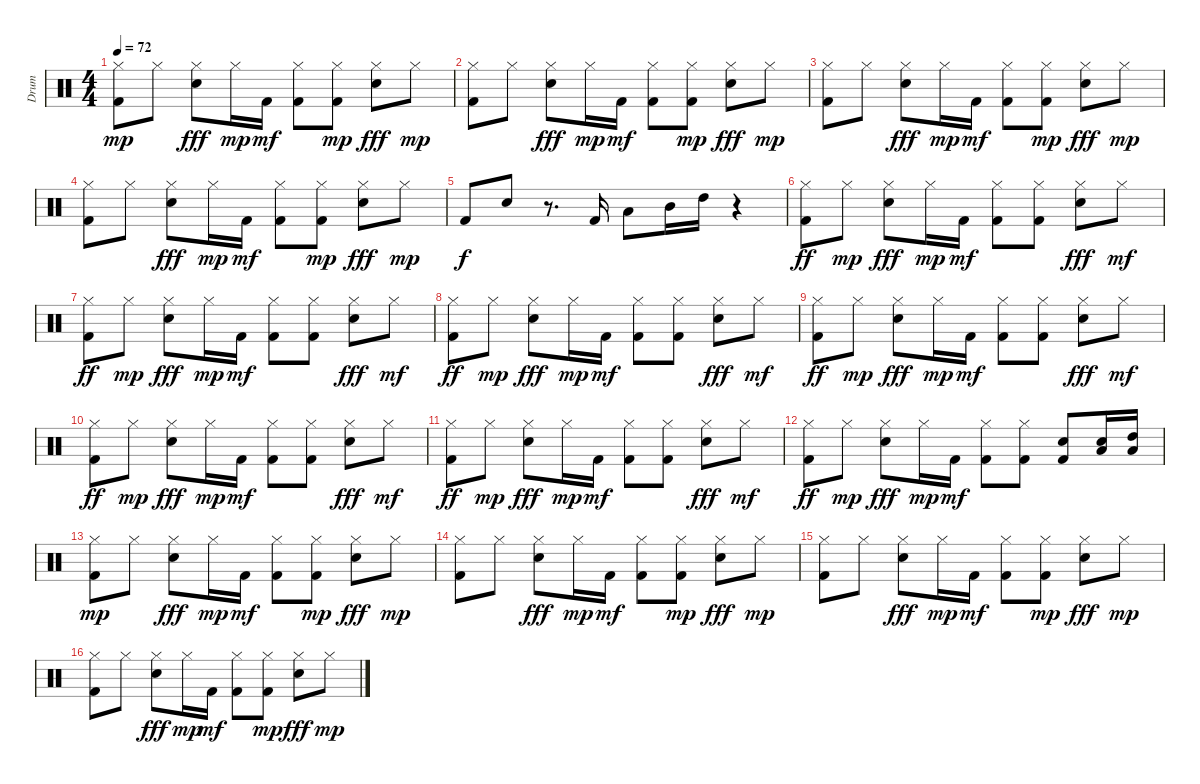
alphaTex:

\track ("Drum" "Drum") {instrument percussion}
\staff {score}
\articulation defaults
\ts (4 4)
\tempo 72
\clef neutral
\ks c
("Hi-Hat (closed)" "Kick (hit) 2").8{dy mp} "Hi-Hat (closed)".8 ("Hi-Hat (closed)" "Snare (hit) 2").8{dy fff} "Hi-Hat (closed)".16{dy mp} "Kick (hit) 2".16{dy mf} ("Hi-Hat (closed)" "Kick (hit) 2").8 ("Hi-Hat (closed)" "Kick (hit) 2").8{dy mp} ("Hi-Hat (closed)" "Snare (hit) 2").8{dy fff} "Hi-Hat (closed)".8{dy mp} |
("Hi-Hat (closed)" "Kick (hit) 2").8 "Hi-Hat (closed)".8 ("Hi-Hat (closed)" "Snare (hit) 2").8{dy fff} "Hi-Hat (closed)".16{dy mp} "Kick (hit) 2".16{dy mf} ("Hi-Hat (closed)" "Kick (hit) 2").8 ("Hi-Hat (closed)" "Kick (hit) 2").8{dy mp} ("Hi-Hat (closed)" "Snare (hit) 2").8{dy fff} "Hi-Hat (closed)".8{dy mp} |
("Hi-Hat (closed)" "Kick (hit) 2").8 "Hi-Hat (closed)".8 ("Hi-Hat (closed)" "Snare (hit) 2").8{dy fff} "Hi-Hat (closed)".16{dy mp} "Kick (hit) 2".16{dy mf} ("Hi-Hat (closed)" "Kick (hit) 2").8 ("Hi-Hat (closed)" "Kick (hit) 2").8{dy mp} ("Hi-Hat (closed)" "Snare (hit) 2").8{dy fff} "Hi-Hat (closed)".8{dy mp} |
("Hi-Hat (closed)" "Kick (hit) 2").8 "Hi-Hat (closed)".8 ("Hi-Hat (closed)" "Snare (hit) 2").8{dy fff} "Hi-Hat (closed)".16{dy mp} "Kick (hit) 2".16{dy mf} ("Hi-Hat (closed)" "Kick (hit) 2").8 ("Hi-Hat (closed)" "Kick (hit) 2").8{dy mp} ("Hi-Hat (closed)" "Snare (hit) 2").8{dy fff} "Hi-Hat (closed)".8{dy mp} |
"Kick (hit) 2".8{dy f} "Snare (hit) 2".8 r.8{d} "Kick (hit) 2".16 "Low Floor Tom (hit)".8 "Mid Tom (hit)".16 "High Tom (hit)".16 r.4 |
("Hi-Hat (closed)" "Kick (hit) 2").8{dy ff} "Hi-Hat (closed)".8{dy mp} ("Hi-Hat (closed)" "Snare (hit) 2").8{dy fff} "Hi-Hat (closed)".16{dy mp} "Kick (hit) 2".16{dy mf} ("Hi-Hat (closed)" "Kick (hit) 2").8 ("Hi-Hat (closed)" "Kick (hit) 2").8 ("Hi-Hat (closed)" "Snare (hit) 2").8{dy fff} "Hi-Hat (closed)".8{dy mf} |
("Hi-Hat (closed)" "Kick (hit) 2").8{dy ff} "Hi-Hat (closed)".8{dy mp} ("Hi-Hat (closed)" "Snare (hit) 2").8{dy fff} "Hi-Hat (closed)".16{dy mp} "Kick (hit) 2".16{dy mf} ("Hi-Hat (closed)" "Kick (hit) 2").8 ("Hi-Hat (closed)" "Kick (hit) 2").8 ("Hi-Hat (closed)" "Snare (hit) 2").8{dy fff} "Hi-Hat (closed)".8{dy mf} |
("Hi-Hat (closed)" "Kick (hit) 2").8{dy ff} "Hi-Hat (closed)".8{dy mp} ("Hi-Hat (closed)" "Snare (hit) 2").8{dy fff} "Hi-Hat (closed)".16{dy mp} "Kick (hit) 2".16{dy mf} ("Hi-Hat (closed)" "Kick (hit) 2").8 ("Hi-Hat (closed)" "Kick (hit) 2").8 ("Hi-Hat (closed)" "Snare (hit) 2").8{dy fff} "Hi-Hat (closed)".8{dy mf} |
("Hi-Hat (closed)" "Kick (hit) 2").8{dy ff} "Hi-Hat (closed)".8{dy mp} ("Hi-Hat (closed)" "Snare (hit) 2").8{dy fff} "Hi-Hat (closed)".16{dy mp} "Kick (hit) 2".16{dy mf} ("Hi-Hat (closed)" "Kick (hit) 2").8 ("Hi-Hat (closed)" "Kick (hit) 2").8 ("Hi-Hat (closed)" "Snare (hit) 2").8{dy fff} "Hi-Hat (closed)".8{dy mf} |
("Hi-Hat (closed)" "Kick (hit) 2").8{dy ff} "Hi-Hat (closed)".8{dy mp} ("Hi-Hat (closed)" "Snare (hit) 2").8{dy fff} "Hi-Hat (closed)".16{dy mp} "Kick (hit) 2".16{dy mf} ("Hi-Hat (closed)" "Kick (hit) 2").8 ("Hi-Hat (closed)" "Kick (hit) 2").8 ("Hi-Hat (closed)" "Snare (hit) 2").8{dy fff} "Hi-Hat (closed)".8{dy mf} |
("Hi-Hat (closed)" "Kick (hit) 2").8{dy ff} "Hi-Hat (closed)".8{dy mp} ("Hi-Hat (closed)" "Snare (hit) 2").8{dy fff} "Hi-Hat (closed)".16{dy mp} "Kick (hit) 2".16{dy mf} ("Hi-Hat (closed)" "Kick (hit) 2").8 ("Hi-Hat (closed)" "Kick (hit) 2").8 ("Hi-Hat (closed)" "Snare (hit) 2").8{dy fff} "Hi-Hat (closed)".8{dy mf} |
("Hi-Hat (closed)" "Kick (hit) 2").8{dy ff} "Hi-Hat (closed)".8{dy mp} ("Hi-Hat (closed)" "Snare (hit) 2").8{dy fff} "Hi-Hat (closed)".16{dy mp} "Kick (hit) 2".16{dy mf} ("Hi-Hat (closed)" "Kick (hit) 2").8 ("Hi-Hat (closed)" "Kick (hit) 2").8 ("Kick (hit) 2" "Electric Snare (hit)").8 ("Low Tom (hit)" "Electric Snare (hit)").16 ("Low Tom (hit)" "High Tom (hit)").16 |
("Hi-Hat (closed)" "Kick (hit) 2").8{dy mp} "Hi-Hat (closed)".8 ("Hi-Hat (closed)" "Snare (hit) 2").8{dy fff} "Hi-Hat (closed)".16{dy mp} "Kick (hit) 2".16{dy mf} ("Hi-Hat (closed)" "Kick (hit) 2").8 ("Hi-Hat (closed)" "Kick (hit) 2").8{dy mp} ("Hi-Hat (closed)" "Snare (hit) 2").8{dy fff} "Hi-Hat (closed)".8{dy mp} |
("Hi-Hat (closed)" "Kick (hit) 2").8 "Hi-Hat (closed)".8 ("Hi-Hat (closed)" "Snare (hit) 2").8{dy fff} "Hi-Hat (closed)".16{dy mp} "Kick (hit) 2".16{dy mf} ("Hi-Hat (closed)" "Kick (hit) 2").8 ("Hi-Hat (closed)" "Kick (hit) 2").8{dy mp} ("Hi-Hat (closed)" "Snare (hit) 2").8{dy fff} "Hi-Hat (closed)".8{dy mp} |
("Hi-Hat (closed)" "Kick (hit) 2").8 "Hi-Hat (closed)".8 ("Hi-Hat (closed)" "Snare (hit) 2").8{dy fff} "Hi-Hat (closed)".16{dy mp} "Kick (hit) 2".16{dy mf} ("Hi-Hat (closed)" "Kick (hit) 2").8 ("Hi-Hat (closed)" "Kick (hit) 2").8{dy mp} ("Hi-Hat (closed)" "Snare (hit) 2").8{dy fff} "Hi-Hat (closed)".8{dy mp} |
("Hi-Hat (closed)" "Kick (hit) 2").8 "Hi-Hat (closed)".8 ("Hi-Hat (closed)" "Snare (hit) 2").8{dy fff} "Hi-Hat (closed)".16{dy mp} "Kick (hit) 2".16{dy mf} ("Hi-Hat (closed)" "Kick (hit) 2").8 ("Hi-Hat (closed)" "Kick (hit) 2").8{dy mp} ("Hi-Hat (closed)" "Snare (hit) 2").8{dy fff} "Hi-Hat (closed)".8{dy mp}
